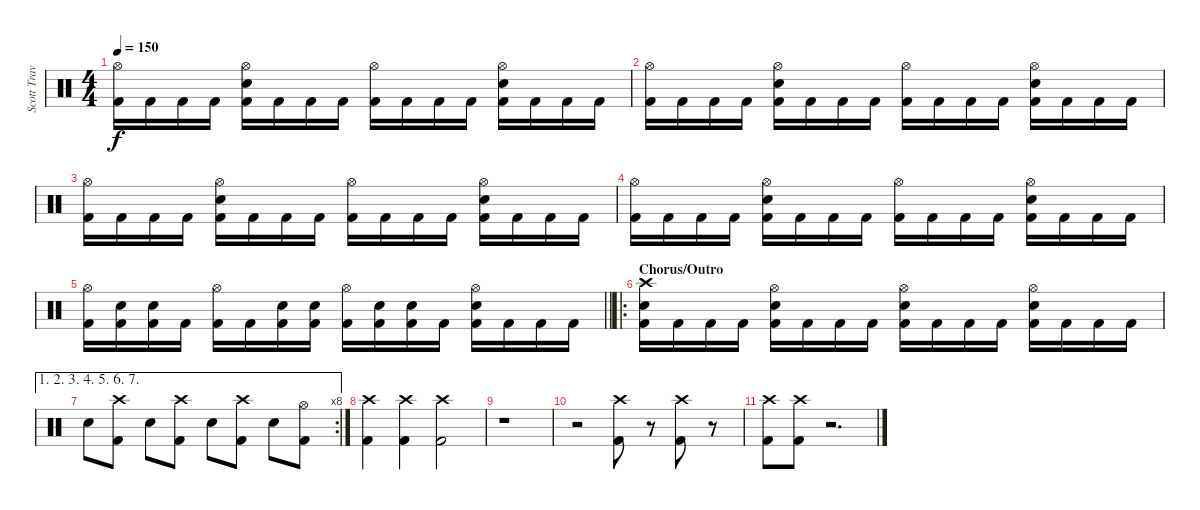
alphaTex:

\track ("Scott Travis" "Scott Trav") {instrument percussion}
\staff {score}
\articulation defaults
\ts (4 4)
\tempo 150
\clef neutral
\ks c
("Hi-Hat (open)" "Kick (hit) 2").16{dy f} "Kick (hit) 2".16 "Kick (hit) 2".16 "Kick (hit) 2".16 ("Hi-Hat (open)" "Snare (hit) 2" "Kick (hit) 2").16 "Kick (hit) 2".16 "Kick (hit) 2".16 "Kick (hit) 2".16 ("Hi-Hat (open)" "Kick (hit) 2").16 "Kick (hit) 2".16 "Kick (hit) 2".16 "Kick (hit) 2".16 ("Hi-Hat (open)" "Snare (hit) 2" "Kick (hit) 2").16 "Kick (hit) 2".16 "Kick (hit) 2".16 "Kick (hit) 2".16 |
("Hi-Hat (open)" "Kick (hit) 2").16 "Kick (hit) 2".16 "Kick (hit) 2".16 "Kick (hit) 2".16 ("Hi-Hat (open)" "Snare (hit) 2" "Kick (hit) 2").16 "Kick (hit) 2".16 "Kick (hit) 2".16 "Kick (hit) 2".16 ("Hi-Hat (open)" "Kick (hit) 2").16 "Kick (hit) 2".16 "Kick (hit) 2".16 "Kick (hit) 2".16 ("Hi-Hat (open)" "Snare (hit) 2" "Kick (hit) 2").16 "Kick (hit) 2".16 "Kick (hit) 2".16 "Kick (hit) 2".16 |
("Hi-Hat (open)" "Kick (hit) 2").16 "Kick (hit) 2".16 "Kick (hit) 2".16 "Kick (hit) 2".16 ("Hi-Hat (open)" "Snare (hit) 2" "Kick (hit) 2").16 "Kick (hit) 2".16 "Kick (hit) 2".16 "Kick (hit) 2".16 ("Hi-Hat (open)" "Kick (hit) 2").16 "Kick (hit) 2".16 "Kick (hit) 2".16 "Kick (hit) 2".16 ("Hi-Hat (open)" "Snare (hit) 2" "Kick (hit) 2").16 "Kick (hit) 2".16 "Kick (hit) 2".16 "Kick (hit) 2".16 |
("Hi-Hat (open)" "Kick (hit) 2").16 "Kick (hit) 2".16 "Kick (hit) 2".16 "Kick (hit) 2".16 ("Hi-Hat (open)" "Snare (hit) 2" "Kick (hit) 2").16 "Kick (hit) 2".16 "Kick (hit) 2".16 "Kick (hit) 2".16 ("Hi-Hat (open)" "Kick (hit) 2").16 "Kick (hit) 2".16 "Kick (hit) 2".16 "Kick (hit) 2".16 ("Hi-Hat (open)" "Snare (hit) 2" "Kick (hit) 2").16 "Kick (hit) 2".16 "Kick (hit) 2".16 "Kick (hit) 2".16 |
\barLineRight lightlight
("Hi-Hat (open)" "Kick (hit) 2").16 ("Snare (hit) 2" "Kick (hit) 2").16 ("Snare (hit) 2" "Kick (hit) 2").16 "Kick (hit) 2".16 ("Hi-Hat (open)" "Kick (hit) 2").16 "Kick (hit) 2".16 ("Snare (hit) 2" "Kick (hit) 2").16 ("Snare (hit) 2" "Kick (hit) 2").16 ("Hi-Hat (open)" "Kick (hit) 2").16 ("Snare (hit) 2" "Kick (hit) 2").16 ("Snare (hit) 2" "Kick (hit) 2").16 "Kick (hit) 2".16 ("Hi-Hat (open)" "Snare (hit) 2" "Kick (hit) 2").16 "Kick (hit) 2".16 "Kick (hit) 2".16 "Kick (hit) 2".16 |
\ro
\section ("" "Chorus/Outro")
("Crash high (hit)" "Snare (hit) 2" "Kick (hit) 2").16 "Kick (hit) 2".16 "Kick (hit) 2".16 "Kick (hit) 2".16 ("Hi-Hat (open)" "Snare (hit) 2" "Kick (hit) 2").16 "Kick (hit) 2".16 "Kick (hit) 2".16 "Kick (hit) 2".16 ("Hi-Hat (open)" "Snare (hit) 2" "Kick (hit) 2").16 "Kick (hit) 2".16 "Kick (hit) 2".16 "Kick (hit) 2".16 ("Hi-Hat (open)" "Snare (hit) 2" "Kick (hit) 2").16 "Kick (hit) 2".16 "Kick (hit) 2".16 "Kick (hit) 2".16 |
\ae (1 2 3 4 5 6 7)
\rc 8 "Snare (hit) 2".8
("Crash high (hit)" "Kick (hit) 2").8 "Snare (hit) 2".8 ("Crash high (hit)" "Kick (hit) 2").8 "Snare (hit) 2".8 ("Crash high (hit)" "Kick (hit) 2").8 "Snare (hit) 2".8 ("Hi-Hat (open)" "Kick (hit) 2").8 |
("Crash high (hit)" "Kick (hit) 2").4 ("Crash high (hit)" "Kick (hit) 2").4 ("Crash high (hit)" "Kick (hit) 2").2 |
r.1 |
r.2 ("Crash high (hit)" "Kick (hit) 2").8 r.8{volume 0} ("Crash high (hit)" "Kick (hit) 2").8{volume 16} r.8{volume 0} |
("Crash high (hit)" "Kick (hit) 2").8{volume 16} ("Crash high (hit)" "Kick (hit) 2").8 r.2{d volume 0}
